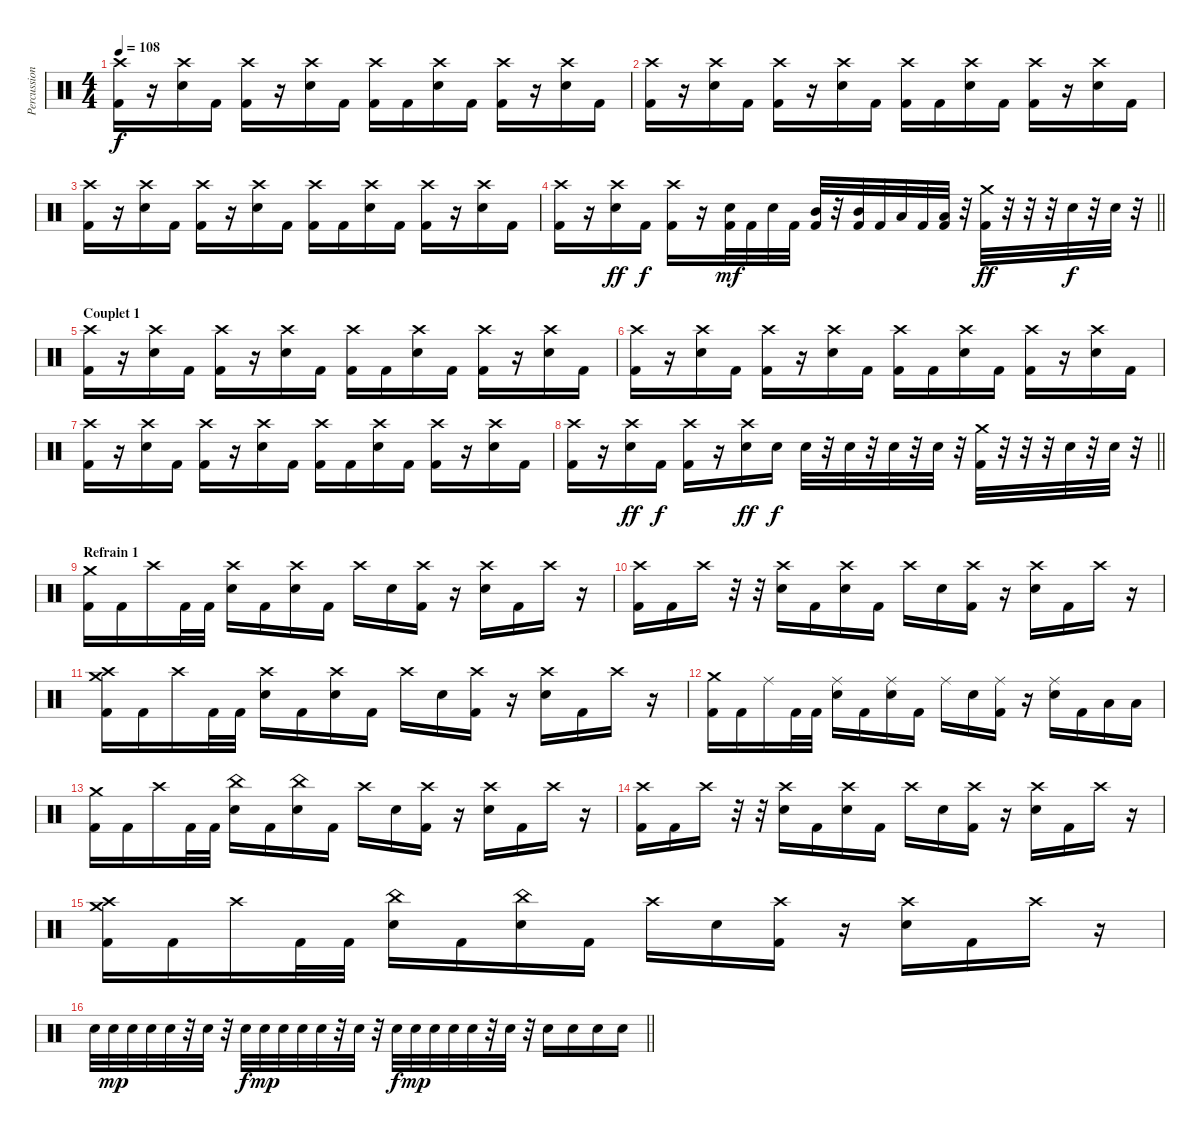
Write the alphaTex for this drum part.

\track ("Percussions" "Percussion") {instrument percussion}
\staff {score}
\articulation defaults
\ts (4 4)
\tempo 108
\clef neutral
\ks c
("Kick (hit) 2" "Crash high (hit)").16{dy f} r.16 ("Electric Snare (hit)" "Crash high (hit)").16 "Kick (hit) 2".16 ("Kick (hit) 2" "Crash high (hit)").16 r.16 ("Electric Snare (hit)" "Crash high (hit)").16 "Kick (hit) 2".16 ("Kick (hit) 2" "Crash high (hit)").16 "Kick (hit) 2".16 ("Electric Snare (hit)" "Crash high (hit)").16 "Kick (hit) 2".16 ("Kick (hit) 2" "Crash high (hit)").16 r.16 ("Electric Snare (hit)" "Crash high (hit)").16 "Kick (hit) 2".16 |
("Kick (hit) 2" "Crash high (hit)").16 r.16 ("Electric Snare (hit)" "Crash high (hit)").16 "Kick (hit) 2".16 ("Kick (hit) 2" "Crash high (hit)").16 r.16 ("Electric Snare (hit)" "Crash high (hit)").16 "Kick (hit) 2".16 ("Kick (hit) 2" "Crash high (hit)").16 "Kick (hit) 2".16 ("Electric Snare (hit)" "Crash high (hit)").16 "Kick (hit) 2".16 ("Kick (hit) 2" "Crash high (hit)").16 r.16 ("Electric Snare (hit)" "Crash high (hit)").16 "Kick (hit) 2".16 |
("Kick (hit) 2" "Crash high (hit)").16 r.16 ("Electric Snare (hit)" "Crash high (hit)").16 "Kick (hit) 2".16 ("Kick (hit) 2" "Crash high (hit)").16 r.16 ("Electric Snare (hit)" "Crash high (hit)").16 "Kick (hit) 2".16 ("Kick (hit) 2" "Crash high (hit)").16 "Kick (hit) 2".16 ("Electric Snare (hit)" "Crash high (hit)").16 "Kick (hit) 2".16 ("Kick (hit) 2" "Crash high (hit)").16 r.16 ("Electric Snare (hit)" "Crash high (hit)").16 "Kick (hit) 2".16 |
\barLineRight lightlight
("Kick (hit) 2" "Crash high (hit)").16 r.16 ("Electric Snare (hit)" "Crash high (hit)").16{dy ff} "Kick (hit) 2".16{dy f} ("Kick (hit) 2" "Crash high (hit)").16 r.16 ("Kick (hit) 2" "Electric Snare (hit)").32{dy mf} "Kick (hit) 2".32 "Electric Snare (hit)".32 "Kick (hit) 2".32 ("Kick (hit) 2" "Mid Tom (hit)").32 r.32 ("Kick (hit) 2" "Mid Tom (hit)").32 "Kick (hit) 2".32 "Low Tom (hit)".32 "Kick (hit) 2".32 ("Kick (hit) 2" "Low Tom (hit)").32 r.32 ("Kick (hit) 2" "Crash medium (hit)").32{dy ff} r.32 r.32 r.32 "Electric Snare (hit)".32{dy f} r.32 "Electric Snare (hit)".32 r.32 |
\section ("" "Couplet 1")
("Kick (hit) 2" "Crash high (hit)").16 r.16 ("Electric Snare (hit)" "Crash high (hit)").16 "Kick (hit) 2".16 ("Kick (hit) 2" "Crash high (hit)").16 r.16 ("Electric Snare (hit)" "Crash high (hit)").16 "Kick (hit) 2".16 ("Kick (hit) 2" "Crash high (hit)").16 "Kick (hit) 2".16 ("Electric Snare (hit)" "Crash high (hit)").16 "Kick (hit) 2".16 ("Kick (hit) 2" "Crash high (hit)").16 r.16 ("Electric Snare (hit)" "Crash high (hit)").16 "Kick (hit) 2".16 |
("Kick (hit) 2" "Crash high (hit)").16 r.16 ("Electric Snare (hit)" "Crash high (hit)").16 "Kick (hit) 2".16 ("Kick (hit) 2" "Crash high (hit)").16 r.16 ("Electric Snare (hit)" "Crash high (hit)").16 "Kick (hit) 2".16 ("Kick (hit) 2" "Crash high (hit)").16 "Kick (hit) 2".16 ("Electric Snare (hit)" "Crash high (hit)").16 "Kick (hit) 2".16 ("Kick (hit) 2" "Crash high (hit)").16 r.16 ("Electric Snare (hit)" "Crash high (hit)").16 "Kick (hit) 2".16 |
("Kick (hit) 2" "Crash high (hit)").16 r.16 ("Electric Snare (hit)" "Crash high (hit)").16 "Kick (hit) 2".16 ("Kick (hit) 2" "Crash high (hit)").16 r.16 ("Electric Snare (hit)" "Crash high (hit)").16 "Kick (hit) 2".16 ("Kick (hit) 2" "Crash high (hit)").16 "Kick (hit) 2".16 ("Electric Snare (hit)" "Crash high (hit)").16 "Kick (hit) 2".16 ("Kick (hit) 2" "Crash high (hit)").16 r.16 ("Electric Snare (hit)" "Crash high (hit)").16 "Kick (hit) 2".16 |
\barLineRight lightlight
("Kick (hit) 2" "Crash high (hit)").16 r.16 ("Electric Snare (hit)" "Crash high (hit)").16{dy ff} "Kick (hit) 2".16{dy f} ("Kick (hit) 2" "Crash high (hit)").16 r.16 ("Electric Snare (hit)" "Crash high (hit)").16{dy ff} "Electric Snare (hit)".16{dy f} "Electric Snare (hit)".32 r.32 "Electric Snare (hit)".32 r.32 "Electric Snare (hit)".32 r.32 "Electric Snare (hit)".32 r.32 ("Kick (hit) 2" "Crash medium (hit)").32 r.32 r.32 r.32 "Electric Snare (hit)".32 r.32 "Electric Snare (hit)".32 r.32 |
\section ("" "Refrain 1")
("Kick (hit) 2" "Crash medium (hit)").16 "Kick (hit) 2".16 "Crash high (hit)".16 "Kick (hit) 2".32 "Kick (hit) 2".32 ("Electric Snare (hit)" "Crash high (hit)").16 "Kick (hit) 2".16 ("Electric Snare (hit)" "Crash high (hit)").16 "Kick (hit) 2".16 "Crash high (hit)".16 "Electric Snare (hit)".16 ("Kick (hit) 2" "Crash high (hit)").16 r.16 ("Electric Snare (hit)" "Crash high (hit)").16 "Kick (hit) 2".16 "Crash high (hit)".16 r.16 |
("Kick (hit) 2" "Crash high (hit)").16 "Kick (hit) 2".16 "Crash high (hit)".16 r.32 r.32 ("Electric Snare (hit)" "Crash high (hit)").16 "Kick (hit) 2".16 ("Electric Snare (hit)" "Crash high (hit)").16 "Kick (hit) 2".16 "Crash high (hit)".16 "Electric Snare (hit)".16 ("Kick (hit) 2" "Crash high (hit)").16 r.16 ("Electric Snare (hit)" "Crash high (hit)").16 "Kick (hit) 2".16 "Crash high (hit)".16 r.16 |
("Kick (hit) 2" "Crash medium (hit)" "Crash high (hit)").16 "Kick (hit) 2".16 "Crash high (hit)".16 "Kick (hit) 2".32 "Kick (hit) 2".32 ("Electric Snare (hit)" "Crash high (hit)").16 "Kick (hit) 2".16 ("Electric Snare (hit)" "Crash high (hit)").16 "Kick (hit) 2".16 "Crash high (hit)".16 "Electric Snare (hit)".16 ("Kick (hit) 2" "Crash high (hit)").16 r.16 ("Electric Snare (hit)" "Crash high (hit)").16 "Kick (hit) 2".16 "Crash high (hit)".16 r.16 |
("Kick (hit) 2" "Crash medium (hit)").16 "Kick (hit) 2".16 "Ride (middle)".16 "Kick (hit) 2".32 "Kick (hit) 2".32 ("Electric Snare (hit)" "Ride (middle)").16 "Kick (hit) 2".16 ("Electric Snare (hit)" "Ride (middle)").16 "Kick (hit) 2".16 "Ride (middle)".16 "Electric Snare (hit)".16 ("Kick (hit) 2" "Ride (middle)").16 r.16 ("Electric Snare (hit)" "Ride (middle)").16 "Kick (hit) 2".16 "Low Tom (hit)".16 "Low Tom (hit)".16 |
("Kick (hit) 2" "Crash medium (hit)").16 "Kick (hit) 2".16 "Crash high (hit)".16 "Kick (hit) 2".32 "Kick (hit) 2".32 ("Electric Snare (hit)" "China (hit)").16 "Kick (hit) 2".16 ("Electric Snare (hit)" "China (hit)").16 "Kick (hit) 2".16 "Crash high (hit)".16 "Electric Snare (hit)".16 ("Kick (hit) 2" "Crash high (hit)").16 r.16 ("Electric Snare (hit)" "Crash high (hit)").16 "Kick (hit) 2".16 "Crash high (hit)".16 r.16 |
("Kick (hit) 2" "Crash high (hit)").16 "Kick (hit) 2".16 "Crash high (hit)".16 r.32 r.32 ("Electric Snare (hit)" "Crash high (hit)").16 "Kick (hit) 2".16 ("Electric Snare (hit)" "Crash high (hit)").16 "Kick (hit) 2".16 "Crash high (hit)".16 "Electric Snare (hit)".16 ("Kick (hit) 2" "Crash high (hit)").16 r.16 ("Electric Snare (hit)" "Crash high (hit)").16 "Kick (hit) 2".16 "Crash high (hit)".16 r.16 |
("Kick (hit) 2" "Crash medium (hit)" "Crash high (hit)").16 "Kick (hit) 2".16 "Crash high (hit)".16 "Kick (hit) 2".32 "Kick (hit) 2".32 ("Electric Snare (hit)" "China (hit)").16 "Kick (hit) 2".16 ("Electric Snare (hit)" "China (hit)").16 "Kick (hit) 2".16 "Crash high (hit)".16 "Electric Snare (hit)".16 ("Kick (hit) 2" "Crash high (hit)").16 r.16 ("Electric Snare (hit)" "Crash high (hit)").16 "Kick (hit) 2".16 "Crash high (hit)".16 r.16 |
\barLineRight lightlight "Electric Snare (hit)".32 "Electric Snare (hit)".32{dy mp} "Electric Snare (hit)".32 "Electric Snare (hit)".32 "Electric Snare (hit)".32
r.32 "Electric Snare (hit)".32 r.32 "Electric Snare (hit)".32{dy f} "Electric Snare (hit)".32{dy mp} "Electric Snare (hit)".32 "Electric Snare (hit)".32 "Electric Snare (hit)".32 r.32 "Electric Snare (hit)".32 r.32 "Electric Snare (hit)".32{dy f} "Electric Snare (hit)".32{dy mp} "Electric Snare (hit)".32 "Electric Snare (hit)".32 "Electric Snare (hit)".32 r.32 "Electric Snare (hit)".32 r.32 "Electric Snare (hit)".16 "Electric Snare (hit)".16 "Electric Snare (hit)".16 "Electric Snare (hit)".16
